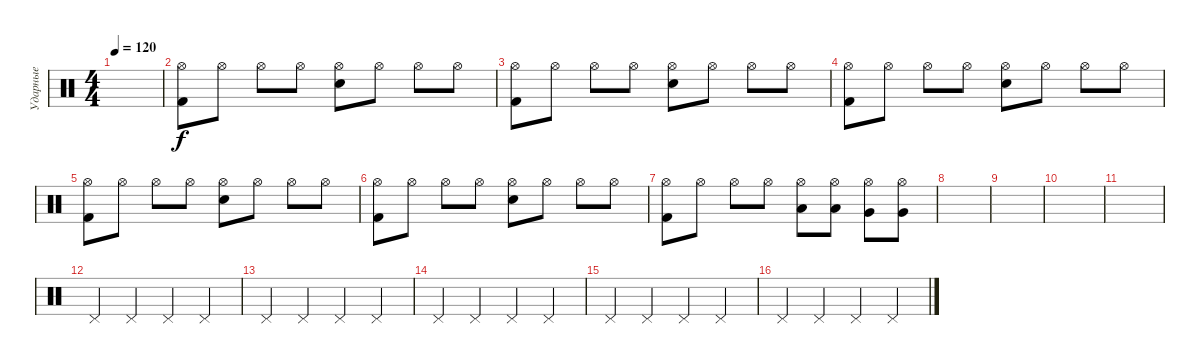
\track ("Ударные" "Ударные") {instrument percussion}
\staff {score}
\articulation defaults
\ts (4 4)
\tempo 120
\clef neutral
\ks c
|
("Hi-Hat (open)" "Kick (hit) 2").8 "Hi-Hat (open)".8 "Hi-Hat (open)".8 "Hi-Hat (open)".8 ("Hi-Hat (open)" "Electric Snare (hit)").8 "Hi-Hat (open)".8 "Hi-Hat (open)".8 "Hi-Hat (open)".8 |
("Hi-Hat (open)" "Kick (hit) 2").8 "Hi-Hat (open)".8 "Hi-Hat (open)".8 "Hi-Hat (open)".8 ("Hi-Hat (open)" "Electric Snare (hit)").8 "Hi-Hat (open)".8 "Hi-Hat (open)".8 "Hi-Hat (open)".8 |
("Hi-Hat (open)" "Kick (hit) 2").8 "Hi-Hat (open)".8 "Hi-Hat (open)".8 "Hi-Hat (open)".8 ("Hi-Hat (open)" "Electric Snare (hit)").8 "Hi-Hat (open)".8 "Hi-Hat (open)".8 "Hi-Hat (open)".8 |
("Hi-Hat (open)" "Kick (hit) 2").8 "Hi-Hat (open)".8 "Hi-Hat (open)".8 "Hi-Hat (open)".8 ("Hi-Hat (open)" "Electric Snare (hit)").8 "Hi-Hat (open)".8 "Hi-Hat (open)".8 "Hi-Hat (open)".8 |
("Hi-Hat (open)" "Kick (hit) 2").8 "Hi-Hat (open)".8 "Hi-Hat (open)".8 "Hi-Hat (open)".8 ("Hi-Hat (open)" "Electric Snare (hit)").8 "Hi-Hat (open)".8 "Hi-Hat (open)".8 "Hi-Hat (open)".8 |
("Hi-Hat (open)" "Kick (hit) 2").8 "Hi-Hat (open)".8 "Hi-Hat (open)".8 "Hi-Hat (open)".8 ("Hi-Hat (open)" "Low Tom (hit)").8 ("Hi-Hat (open)" "Low Tom (hit)").8 ("Hi-Hat (open)" "Very Low Tom (hit)").8 ("Hi-Hat (open)" "Very Low Tom (hit)").8 |
|
|
|
|
"Pedal Hi-Hat (hit)".4 "Pedal Hi-Hat (hit)".4 "Pedal Hi-Hat (hit)".4 "Pedal Hi-Hat (hit)".4 |
"Pedal Hi-Hat (hit)".4 "Pedal Hi-Hat (hit)".4 "Pedal Hi-Hat (hit)".4 "Pedal Hi-Hat (hit)".4 |
"Pedal Hi-Hat (hit)".4 "Pedal Hi-Hat (hit)".4 "Pedal Hi-Hat (hit)".4 "Pedal Hi-Hat (hit)".4 |
"Pedal Hi-Hat (hit)".4 "Pedal Hi-Hat (hit)".4 "Pedal Hi-Hat (hit)".4 "Pedal Hi-Hat (hit)".4 |
"Pedal Hi-Hat (hit)".4 "Pedal Hi-Hat (hit)".4 "Pedal Hi-Hat (hit)".4 "Pedal Hi-Hat (hit)".4
